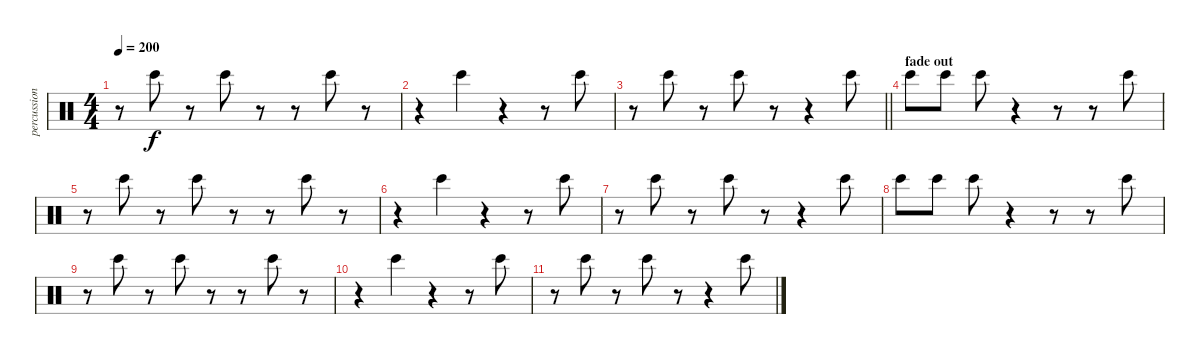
\track ("percussion" "percussion") {instrument percussion}
\staff {score}
\articulation defaults
\ts (4 4)
\tempo 200
\clef neutral
\ks c
r.8{dy f} "Bongo High (hit)".8 r.8 "Bongo High (hit)".8 r.8 r.8 "Bongo High (hit)".8 r.8 |
r.4 "Bongo High (hit)".4 r.4 r.8 "Bongo High (hit)".8 |
\barLineRight lightlight
r.8 "Bongo High (hit)".8 r.8 "Bongo High (hit)".8 r.8 r.4 "Bongo High (hit)".8 |
\section ("" "fade out")
"Bongo High (hit)".8 "Bongo High (hit)".8 "Bongo High (hit)".8 r.4 r.8 r.8 "Bongo High (hit)".8 |
r.8 "Bongo High (hit)".8 r.8 "Bongo High (hit)".8 r.8 r.8 "Bongo High (hit)".8 r.8 |
r.4 "Bongo High (hit)".4 r.4 r.8 "Bongo High (hit)".8 |
r.8 "Bongo High (hit)".8 r.8 "Bongo High (hit)".8 r.8 r.4 "Bongo High (hit)".8 |
"Bongo High (hit)".8 "Bongo High (hit)".8 "Bongo High (hit)".8 r.4 r.8 r.8 "Bongo High (hit)".8 |
r.8 "Bongo High (hit)".8 r.8 "Bongo High (hit)".8 r.8 r.8 "Bongo High (hit)".8 r.8 |
r.4 "Bongo High (hit)".4 r.4 r.8 "Bongo High (hit)".8 |
r.8 "Bongo High (hit)".8 r.8 "Bongo High (hit)".8 r.8 r.4 "Bongo High (hit)".8
